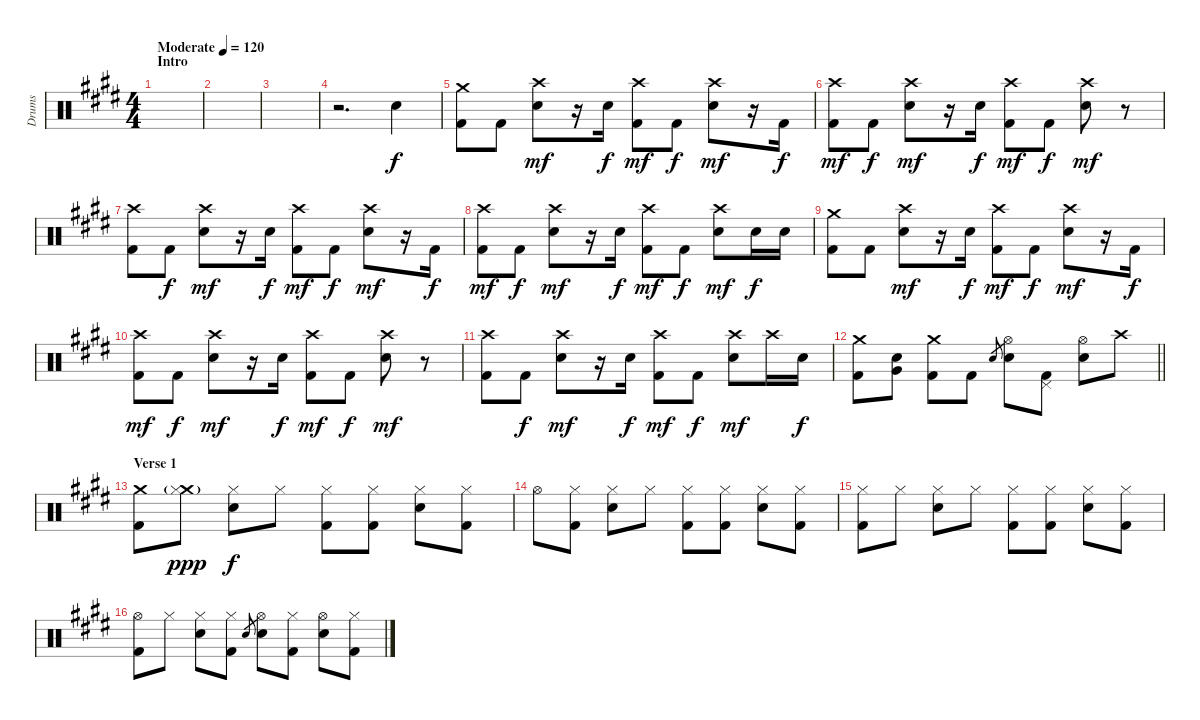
\track ("Drums" "Drums") {instrument percussion}
\staff {score}
\articulation defaults
\ts (4 4)
\section ("" "Intro")
\tempo (120 "Moderate")
\clef neutral
\ks e
|
|
|
r.2{d} "Electric Snare (hit)".4 |
("Crash medium (hit)" "Kick (hit) 2").8 "Kick (hit) 2".8 ("Crash high (hit)" "Electric Snare (hit)").8{dy mf} r.16 "Electric Snare (hit)".16{dy f} ("Crash high (hit)" "Kick (hit) 2").8{dy mf} "Kick (hit) 2".8{dy f} ("Crash high (hit)" "Electric Snare (hit)").8{dy mf} r.16 "Kick (hit) 2".16{dy f} |
("Crash high (hit)" "Kick (hit) 2").8{dy mf} "Kick (hit) 2".8{dy f} ("Crash high (hit)" "Electric Snare (hit)").8{dy mf} r.16 "Electric Snare (hit)".16{dy f} ("Crash high (hit)" "Kick (hit) 2").8{dy mf} "Kick (hit) 2".8{dy f} ("Crash high (hit)" "Electric Snare (hit)").8{dy mf} r.8 |
("Crash high (hit)" "Kick (hit) 2").8 "Kick (hit) 2".8{dy f} ("Crash high (hit)" "Electric Snare (hit)").8{dy mf} r.16 "Electric Snare (hit)".16{dy f} ("Crash high (hit)" "Kick (hit) 2").8{dy mf} "Kick (hit) 2".8{dy f} ("Crash high (hit)" "Electric Snare (hit)").8{dy mf} r.16 "Kick (hit) 2".16{dy f} |
("Crash high (hit)" "Kick (hit) 2").8{dy mf} "Kick (hit) 2".8{dy f} ("Crash high (hit)" "Electric Snare (hit)").8{dy mf} r.16 "Electric Snare (hit)".16{dy f} ("Crash high (hit)" "Kick (hit) 2").8{dy mf} "Kick (hit) 2".8{dy f} ("Crash high (hit)" "Electric Snare (hit)").8{dy mf} "Electric Snare (hit)".16{dy f} "Electric Snare (hit)".16 |
("Crash medium (hit)" "Kick (hit) 2").8 "Kick (hit) 2".8 ("Crash high (hit)" "Electric Snare (hit)").8{dy mf} r.16 "Electric Snare (hit)".16{dy f} ("Crash high (hit)" "Kick (hit) 2").8{dy mf} "Kick (hit) 2".8{dy f} ("Crash high (hit)" "Electric Snare (hit)").8{dy mf} r.16 "Kick (hit) 2".16{dy f} |
("Crash high (hit)" "Kick (hit) 2").8{dy mf} "Kick (hit) 2".8{dy f} ("Crash high (hit)" "Electric Snare (hit)").8{dy mf} r.16 "Electric Snare (hit)".16{dy f} ("Crash high (hit)" "Kick (hit) 2").8{dy mf} "Kick (hit) 2".8{dy f} ("Crash high (hit)" "Electric Snare (hit)").8{dy mf} r.8 |
("Crash high (hit)" "Kick (hit) 2").8 "Kick (hit) 2".8{dy f} ("Crash high (hit)" "Electric Snare (hit)").8{dy mf} r.16 "Electric Snare (hit)".16{dy f} ("Crash high (hit)" "Kick (hit) 2").8{dy mf} "Kick (hit) 2".8{dy f} ("Crash high (hit)" "Electric Snare (hit)").8{dy mf} "Crash high (hit)".16 "Electric Snare (hit)".16{dy f} |
\barLineRight lightlight
("Crash medium (hit)" "Kick (hit) 2").8 ("Electric Snare (hit)" "Very Low Tom (hit)").8 ("Crash medium (hit)" "Kick (hit) 2").8 "Kick (hit) 2".8 "Electric Snare (hit)".8{gr} ("Hi-Hat (open)" "Electric Snare (hit)").8 ("Pedal Hi-Hat (hit)" "Kick (hit) 2").8 ("Hi-Hat (open)" "Electric Snare (hit)").8 "Crash high (hit)".8 |
\section ("" "Verse 1")
("Crash medium (hit)" "Kick (hit) 2").8 ("Crash medium (hit)"{g} "Hi-Hat (closed)").8{dy ppp} ("Hi-Hat (closed)" "Electric Snare (hit)").8{dy f} "Hi-Hat (closed)".8 ("Hi-Hat (closed)" "Kick (hit) 2").8 ("Hi-Hat (closed)" "Kick (hit) 2").8 ("Hi-Hat (closed)" "Electric Snare (hit)").8 ("Hi-Hat (closed)" "Kick (hit) 2").8 |
"Hi-Hat (open)".8 ("Hi-Hat (closed)" "Kick (hit) 2").8 ("Hi-Hat (closed)" "Electric Snare (hit)").8 "Hi-Hat (closed)".8 ("Hi-Hat (closed)" "Kick (hit) 2").8 ("Hi-Hat (closed)" "Kick (hit) 2").8 ("Hi-Hat (closed)" "Electric Snare (hit)").8 ("Hi-Hat (closed)" "Kick (hit) 2").8 |
("Hi-Hat (closed)" "Kick (hit) 2").8 "Hi-Hat (closed)".8 ("Hi-Hat (closed)" "Electric Snare (hit)").8 "Hi-Hat (closed)".8 ("Hi-Hat (closed)" "Kick (hit) 2").8 ("Hi-Hat (closed)" "Kick (hit) 2").8 ("Hi-Hat (closed)" "Electric Snare (hit)").8 ("Hi-Hat (closed)" "Kick (hit) 2").8 |
("Hi-Hat (open)" "Kick (hit) 2").8 "Hi-Hat (closed)".8 ("Hi-Hat (closed)" "Electric Snare (hit)").8 ("Hi-Hat (closed)" "Kick (hit) 2").8 "Electric Snare (hit)".8{gr} ("Hi-Hat (open)" "Electric Snare (hit)").8 ("Hi-Hat (closed)" "Kick (hit) 2").8 ("Hi-Hat (open)" "Electric Snare (hit)").8 ("Hi-Hat (closed)" "Kick (hit) 2").8
